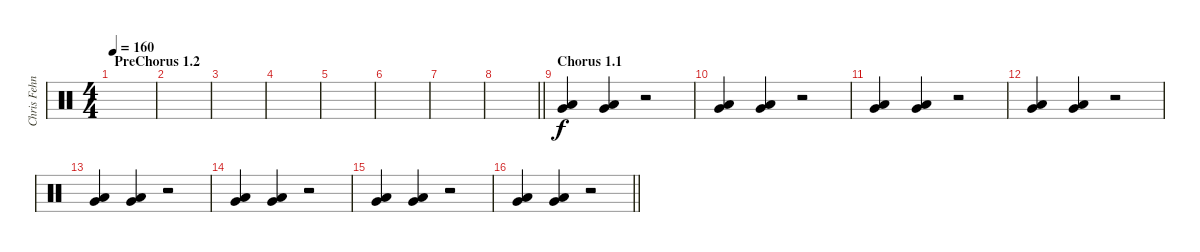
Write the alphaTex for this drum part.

\track ("Chris Fehn" "Chris Fehn") {instrument percussion}
\staff {score}
\articulation defaults
\ts (4 4)
\section ("" "PreChorus 1.2")
\tempo 160
\clef neutral
\ks c
|
|
|
|
|
|
|
\barLineRight lightlight
|
\section ("" "Chorus 1.1")
("Very Low Tom (hit)" "Low Floor Tom (hit)").4 ("Very Low Tom (hit)" "Low Floor Tom (hit)").4 r.2 |
("Very Low Tom (hit)" "Low Floor Tom (hit)").4 ("Very Low Tom (hit)" "Low Floor Tom (hit)").4 r.2 |
("Very Low Tom (hit)" "Low Floor Tom (hit)").4 ("Very Low Tom (hit)" "Low Floor Tom (hit)").4 r.2 |
("Very Low Tom (hit)" "Low Floor Tom (hit)").4 ("Very Low Tom (hit)" "Low Floor Tom (hit)").4 r.2 |
("Very Low Tom (hit)" "Low Floor Tom (hit)").4 ("Very Low Tom (hit)" "Low Floor Tom (hit)").4 r.2 |
("Very Low Tom (hit)" "Low Floor Tom (hit)").4 ("Very Low Tom (hit)" "Low Floor Tom (hit)").4 r.2 |
("Very Low Tom (hit)" "Low Floor Tom (hit)").4 ("Very Low Tom (hit)" "Low Floor Tom (hit)").4 r.2 |
\barLineRight lightlight
("Very Low Tom (hit)" "Low Floor Tom (hit)").4 ("Very Low Tom (hit)" "Low Floor Tom (hit)").4 r.2
